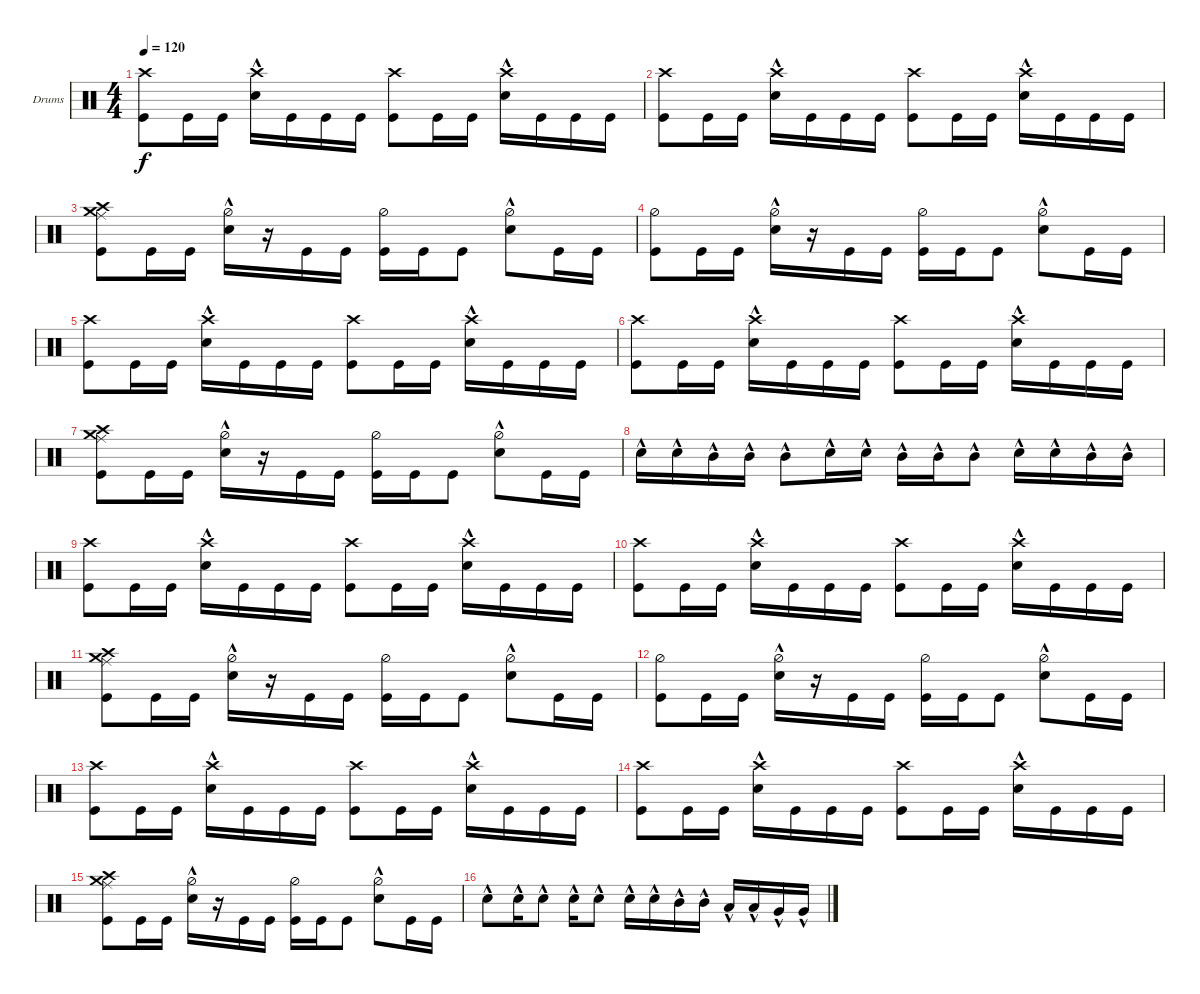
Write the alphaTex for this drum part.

\bracketExtendMode groupsimilarinstruments
\firstSystemTrackNameOrientation horizontal
\otherSystemsTrackNameOrientation horizontal
\track ("Drumkit" "Drums") {instrument percussion}
\staff {score}
\articulation defaults
\ts (4 4)
\tempo 120
\clef neutral
\scale
0.333333
\ks c
("Kick (hit)" "Crash high (hit)").8{dy f} "Kick (hit)".16 "Kick (hit)".16 ("Snare (hit) 2"{hac} "Crash high (hit)").16 "Kick (hit)".16 "Kick (hit)".16 "Kick (hit)".16 ("Kick (hit)" "Crash high (hit)").8 "Kick (hit)".16 "Kick (hit)".16 ("Snare (hit) 2"{hac} "Crash high (hit)").16 "Kick (hit)".16 "Kick (hit)".16 "Kick (hit)".16 |
\scale
0.333333 ("Kick (hit)" "Crash high (hit)").8 "Kick (hit)".16 "Kick (hit)".16 ("Snare (hit) 2"{hac} "Crash high (hit)").16 "Kick (hit)".16 "Kick (hit)".16 "Kick (hit)".16 ("Kick (hit)" "Crash high (hit)").8 "Kick (hit)".16 "Kick (hit)".16 ("Snare (hit) 2"{hac} "Crash high (hit)").16 "Kick (hit)".16 "Kick (hit)".16 "Kick (hit)".16 |
\scale
0.333333 ("Kick (hit)" "Ride (middle)" "Crash medium (hit)" "Crash high (hit)").8 "Kick (hit)".16 "Kick (hit)".16 ("Snare (hit) 2"{hac} "Hi-Hat (half)").16 r.16 "Kick (hit)".16 "Kick (hit)".16 ("Kick (hit)" "Hi-Hat (half)").16 "Kick (hit)".16 "Kick (hit)".8 ("Snare (hit) 2"{hac} "Hi-Hat (half)").8 "Kick (hit)".16 "Kick (hit)".16 |
\scale
0.333333 ("Kick (hit)" "Hi-Hat (half)").8 "Kick (hit)".16 "Kick (hit)".16 ("Snare (hit) 2"{hac} "Hi-Hat (half)").16 r.16 "Kick (hit)".16 "Kick (hit)".16 ("Kick (hit)" "Hi-Hat (half)").16 "Kick (hit)".16 "Kick (hit)".8 ("Snare (hit) 2"{hac} "Hi-Hat (half)").8 "Kick (hit)".16 "Kick (hit)".16 |
\scale
0.333333 ("Kick (hit)" "Crash high (hit)").8 "Kick (hit)".16 "Kick (hit)".16 ("Snare (hit) 2"{hac} "Crash high (hit)").16 "Kick (hit)".16 "Kick (hit)".16 "Kick (hit)".16 ("Kick (hit)" "Crash high (hit)").8 "Kick (hit)".16 "Kick (hit)".16 ("Snare (hit) 2"{hac} "Crash high (hit)").16 "Kick (hit)".16 "Kick (hit)".16 "Kick (hit)".16 |
\scale
0.333333 ("Kick (hit)" "Crash high (hit)").8 "Kick (hit)".16 "Kick (hit)".16 ("Snare (hit) 2"{hac} "Crash high (hit)").16 "Kick (hit)".16 "Kick (hit)".16 "Kick (hit)".16 ("Kick (hit)" "Crash high (hit)").8 "Kick (hit)".16 "Kick (hit)".16 ("Snare (hit) 2"{hac} "Crash high (hit)").16 "Kick (hit)".16 "Kick (hit)".16 "Kick (hit)".16 |
\scale
0.333333 ("Kick (hit)" "Ride (middle)" "Crash medium (hit)" "Crash high (hit)").8 "Kick (hit)".16 "Kick (hit)".16 ("Snare (hit) 2"{hac} "Hi-Hat (half)").16 r.16 "Kick (hit)".16 "Kick (hit)".16 ("Kick (hit)" "Hi-Hat (half)").16 "Kick (hit)".16 "Kick (hit)".8 ("Snare (hit) 2"{hac} "Hi-Hat (half)").8 "Kick (hit)".16 "Kick (hit)".16 |
\scale
0.333333 "Snare (hit) 2"{hac}.16 "Snare (hit) 2"{hac}.16 "Mid Tom (hit)"{hac}.16 "Mid Tom (hit)"{hac}.16 "Mid Tom (hit)"{hac}.8 "Snare (hit) 2"{hac}.16 "Snare (hit) 2"{hac}.16 "Mid Tom (hit)"{hac}.16 "Mid Tom (hit)"{hac}.16 "Mid Tom (hit)"{hac}.8 "Snare (hit) 2"{hac}.16 "Snare (hit) 2"{hac}.16 "Mid Tom (hit)"{hac}.16 "Mid Tom (hit)"{hac}.16 |
\scale
0.333333 ("Kick (hit)" "Crash high (hit)").8 "Kick (hit)".16 "Kick (hit)".16 ("Snare (hit) 2"{hac} "Crash high (hit)").16 "Kick (hit)".16 "Kick (hit)".16 "Kick (hit)".16 ("Kick (hit)" "Crash high (hit)").8 "Kick (hit)".16 "Kick (hit)".16 ("Snare (hit) 2"{hac} "Crash high (hit)").16 "Kick (hit)".16 "Kick (hit)".16 "Kick (hit)".16 |
\scale
0.333333 ("Kick (hit)" "Crash high (hit)").8 "Kick (hit)".16 "Kick (hit)".16 ("Snare (hit) 2"{hac} "Crash high (hit)").16 "Kick (hit)".16 "Kick (hit)".16 "Kick (hit)".16 ("Kick (hit)" "Crash high (hit)").8 "Kick (hit)".16 "Kick (hit)".16 ("Snare (hit) 2"{hac} "Crash high (hit)").16 "Kick (hit)".16 "Kick (hit)".16 "Kick (hit)".16 |
\scale
0.333333 ("Kick (hit)" "Ride (middle)" "Crash medium (hit)" "Crash high (hit)").8 "Kick (hit)".16 "Kick (hit)".16 ("Snare (hit) 2"{hac} "Hi-Hat (half)").16 r.16 "Kick (hit)".16 "Kick (hit)".16 ("Kick (hit)" "Hi-Hat (half)").16 "Kick (hit)".16 "Kick (hit)".8 ("Snare (hit) 2"{hac} "Hi-Hat (half)").8 "Kick (hit)".16 "Kick (hit)".16 |
\scale
0.333333 ("Kick (hit)" "Hi-Hat (half)").8 "Kick (hit)".16 "Kick (hit)".16 ("Snare (hit) 2"{hac} "Hi-Hat (half)").16 r.16 "Kick (hit)".16 "Kick (hit)".16 ("Kick (hit)" "Hi-Hat (half)").16 "Kick (hit)".16 "Kick (hit)".8 ("Snare (hit) 2"{hac} "Hi-Hat (half)").8 "Kick (hit)".16 "Kick (hit)".16 |
\scale
0.333333 ("Kick (hit)" "Crash high (hit)").8 "Kick (hit)".16 "Kick (hit)".16 ("Snare (hit) 2"{hac} "Crash high (hit)").16 "Kick (hit)".16 "Kick (hit)".16 "Kick (hit)".16 ("Kick (hit)" "Crash high (hit)").8 "Kick (hit)".16 "Kick (hit)".16 ("Snare (hit) 2"{hac} "Crash high (hit)").16 "Kick (hit)".16 "Kick (hit)".16 "Kick (hit)".16 |
\scale
0.333333 ("Kick (hit)" "Crash high (hit)").8 "Kick (hit)".16 "Kick (hit)".16 ("Snare (hit) 2"{hac} "Crash high (hit)").16 "Kick (hit)".16 "Kick (hit)".16 "Kick (hit)".16 ("Kick (hit)" "Crash high (hit)").8 "Kick (hit)".16 "Kick (hit)".16 ("Snare (hit) 2"{hac} "Crash high (hit)").16 "Kick (hit)".16 "Kick (hit)".16 "Kick (hit)".16 |
\scale
0.333333 ("Kick (hit)" "Ride (middle)" "Crash medium (hit)" "Crash high (hit)").8 "Kick (hit)".16 "Kick (hit)".16 ("Snare (hit) 2"{hac} "Hi-Hat (half)").16 r.16 "Kick (hit)".16 "Kick (hit)".16 ("Kick (hit)" "Hi-Hat (half)").16 "Kick (hit)".16 "Kick (hit)".8 ("Snare (hit) 2"{hac} "Hi-Hat (half)").8 "Kick (hit)".16 "Kick (hit)".16 |
\scale
0.333333 "Snare (hit) 2"{hac}.8 "Snare (hit) 2"{hac}.16 "Snare (hit) 2"{hac}.8 "Snare (hit) 2"{hac}.16 "Snare (hit) 2"{hac}.8 "Snare (hit) 2"{hac}.16 "Snare (hit) 2"{hac}.16 "Mid Tom (hit)"{hac}.16 "Mid Tom (hit)"{hac}.16 "Low Tom (hit)"{hac}.16 "Low Tom (hit)"{hac}.16 "Very Low Tom (hit)"{hac}.16 "Very Low Tom (hit)"{hac}.16
